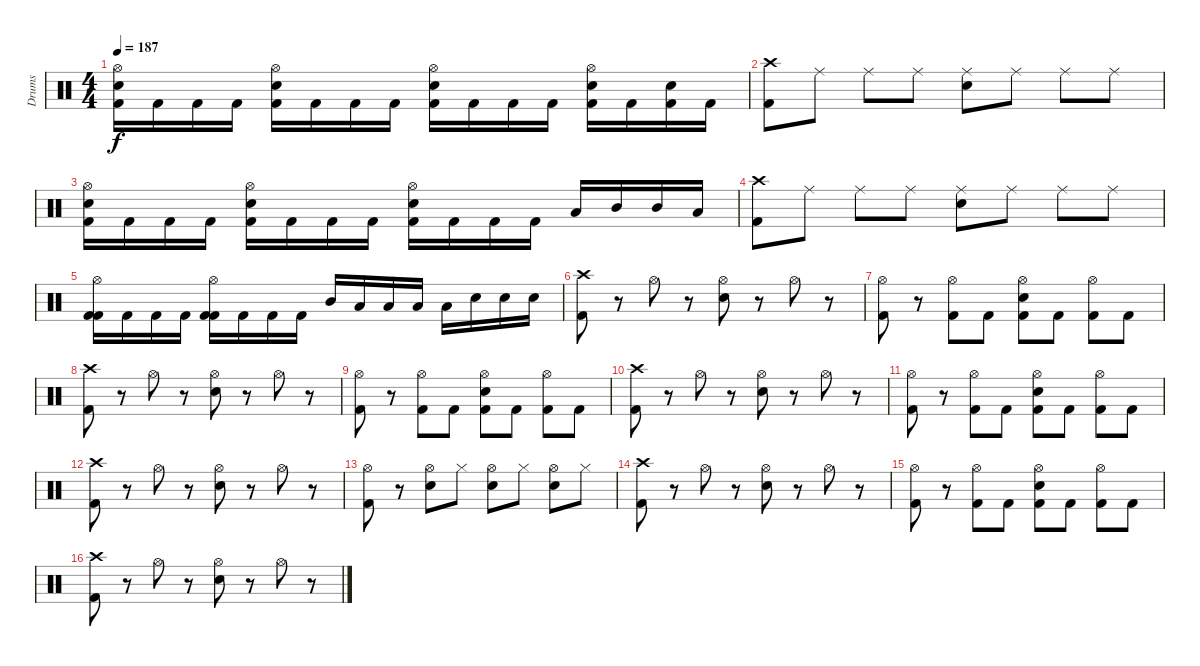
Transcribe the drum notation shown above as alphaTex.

\track ("Drums" "Drums") {instrument percussion}
\staff {score}
\articulation defaults
\ts (4 4)
\tempo 187
\clef neutral
\ks c
("Kick (hit) 2" "Electric Snare (hit)" "Hi-Hat (open)").16{dy f} "Kick (hit) 2".16 "Kick (hit) 2".16 "Kick (hit) 2".16 ("Kick (hit) 2" "Electric Snare (hit)" "Hi-Hat (open)").16 "Kick (hit) 2".16 "Kick (hit) 2".16 "Kick (hit) 2".16 ("Kick (hit) 2" "Electric Snare (hit)" "Hi-Hat (open)").16 "Kick (hit) 2".16 "Kick (hit) 2".16 "Kick (hit) 2".16 ("Kick (hit) 2" "Electric Snare (hit)" "Hi-Hat (open)").16 "Kick (hit) 2".16 ("Kick (hit) 2" "Electric Snare (hit)").16 "Kick (hit) 2".16 |
("Crash high (hit)" "Kick (hit) 2").8 "Ride (middle)".8 "Ride (middle)".8 "Ride (middle)".8 ("Ride (middle)" "Electric Snare (hit)").8 "Ride (middle)".8 "Ride (middle)".8 "Ride (middle)".8 |
("Kick (hit) 2" "Electric Snare (hit)" "Hi-Hat (open)").16 "Kick (hit) 2".16 "Kick (hit) 2".16 "Kick (hit) 2".16 ("Kick (hit) 2" "Electric Snare (hit)" "Hi-Hat (open)").16 "Kick (hit) 2".16 "Kick (hit) 2".16 "Kick (hit) 2".16 ("Kick (hit) 2" "Electric Snare (hit)" "Hi-Hat (open)").16 "Kick (hit) 2".16 "Kick (hit) 2".16 "Kick (hit) 2".16 "Low Tom (hit)".16 "Mid Tom (hit)".16 "Mid Tom (hit)".16 "Low Tom (hit)".16 |
("Crash high (hit)" "Kick (hit) 2").8 "Ride (middle)".8 "Ride (middle)".8 "Ride (middle)".8 ("Ride (middle)" "Electric Snare (hit)").8 "Ride (middle)".8 "Ride (middle)".8 "Ride (middle)".8 |
("Kick (hit) 2" "Kick (hit) 2" "Hi-Hat (open)").16 "Kick (hit) 2".16 "Kick (hit) 2".16 "Kick (hit) 2".16 ("Kick (hit) 2" "Kick (hit) 2" "Hi-Hat (open)").16 "Kick (hit) 2".16 "Kick (hit) 2".16 "Kick (hit) 2".16 "Mid Tom (hit)".16 "Low Tom (hit)".16 "Low Tom (hit)".16 "Low Tom (hit)".16 "Low Floor Tom (hit)".16 "Electric Snare (hit)".16 "Electric Snare (hit)".16 "Electric Snare (hit)".16 |
("Crash high (hit)" "Kick (hit) 2").8 r.8 "Hi-Hat (open)".8 r.8 ("Hi-Hat (open)" "Electric Snare (hit)").8 r.8 "Hi-Hat (open)".8 r.8 |
("Hi-Hat (open)" "Kick (hit) 2").8 r.8 ("Hi-Hat (open)" "Kick (hit) 2").8 "Kick (hit) 2".8 ("Hi-Hat (open)" "Electric Snare (hit)" "Kick (hit) 2").8 "Kick (hit) 2".8 ("Hi-Hat (open)" "Kick (hit) 2").8 "Kick (hit) 2".8 |
("Crash high (hit)" "Kick (hit) 2").8 r.8 "Hi-Hat (open)".8 r.8 ("Hi-Hat (open)" "Electric Snare (hit)").8 r.8 "Hi-Hat (open)".8 r.8 |
("Hi-Hat (open)" "Kick (hit) 2").8 r.8 ("Hi-Hat (open)" "Kick (hit) 2").8 "Kick (hit) 2".8 ("Hi-Hat (open)" "Electric Snare (hit)" "Kick (hit) 2").8 "Kick (hit) 2".8 ("Hi-Hat (open)" "Kick (hit) 2").8 "Kick (hit) 2".8 |
("Crash high (hit)" "Kick (hit) 2").8 r.8 "Hi-Hat (open)".8 r.8 ("Hi-Hat (open)" "Electric Snare (hit)").8 r.8 "Hi-Hat (open)".8 r.8 |
("Hi-Hat (open)" "Kick (hit) 2").8 r.8 ("Hi-Hat (open)" "Kick (hit) 2").8 "Kick (hit) 2".8 ("Hi-Hat (open)" "Electric Snare (hit)" "Kick (hit) 2").8 "Kick (hit) 2".8 ("Hi-Hat (open)" "Kick (hit) 2").8 "Kick (hit) 2".8 |
("Crash high (hit)" "Kick (hit) 2").8 r.8 "Hi-Hat (open)".8 r.8 ("Hi-Hat (open)" "Electric Snare (hit)").8 r.8 "Hi-Hat (open)".8 r.8 |
("Hi-Hat (open)" "Kick (hit) 2").8 r.8 ("Hi-Hat (open)" "Electric Snare (hit)").8 "Hi-Hat (closed)".8 ("Hi-Hat (open)" "Electric Snare (hit)").8 "Hi-Hat (closed)".8 ("Hi-Hat (open)" "Electric Snare (hit)").8 "Hi-Hat (closed)".8 |
("Crash high (hit)" "Kick (hit) 2").8 r.8 "Hi-Hat (open)".8 r.8 ("Hi-Hat (open)" "Electric Snare (hit)").8 r.8 "Hi-Hat (open)".8 r.8 |
("Hi-Hat (open)" "Kick (hit) 2").8 r.8 ("Hi-Hat (open)" "Kick (hit) 2").8 "Kick (hit) 2".8 ("Hi-Hat (open)" "Electric Snare (hit)" "Kick (hit) 2").8 "Kick (hit) 2".8 ("Hi-Hat (open)" "Kick (hit) 2").8 "Kick (hit) 2".8 |
("Crash high (hit)" "Kick (hit) 2").8 r.8 "Hi-Hat (open)".8 r.8 ("Hi-Hat (open)" "Electric Snare (hit)").8 r.8 "Hi-Hat (open)".8 r.8
